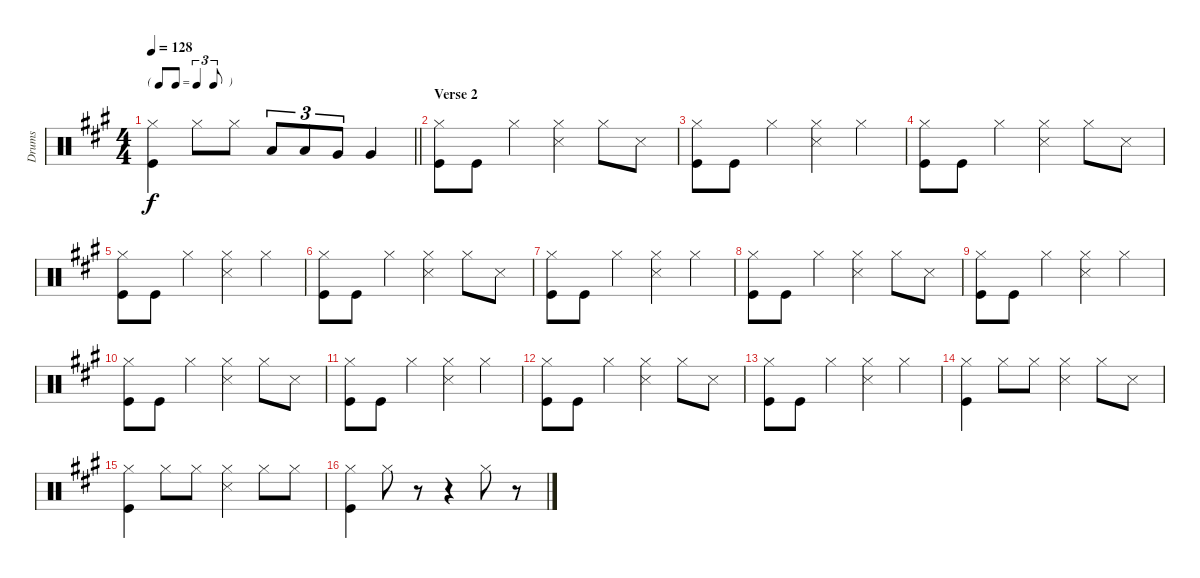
\track ("Drums" "Drums") {instrument percussion}
\staff {score}
\articulation defaults
\ts (4 4)
\tf triplet8th
\tempo 128
\clef neutral
\barLineRight lightlight
\ks a
("Hi-Hat (closed)" "Kick (hit)").4{dy f} "Hi-Hat (closed)".8 "Hi-Hat (closed)".8 "Low Tom (hit)".8{tu (3 2)} "Low Tom (hit)".8{tu (3 2)} "Very Low Tom (hit)".8{tu (3 2)} "Very Low Tom (hit)".4 |
\section ("" "Verse 2")
("Hi-Hat (closed)" "Kick (hit)").8 "Kick (hit)".8 "Hi-Hat (closed)".4 ("Hi-Hat (closed)" "Snare (side stick) 3").4 "Hi-Hat (closed)".8 "Snare (side stick) 3".8 |
("Hi-Hat (closed)" "Kick (hit)").8 "Kick (hit)".8 "Hi-Hat (closed)".4 ("Hi-Hat (closed)" "Snare (side stick) 3").4 "Hi-Hat (closed)".4 |
("Hi-Hat (closed)" "Kick (hit)").8 "Kick (hit)".8 "Hi-Hat (closed)".4 ("Hi-Hat (closed)" "Snare (side stick) 3").4 "Hi-Hat (closed)".8 "Snare (side stick) 3".8 |
("Hi-Hat (closed)" "Kick (hit)").8 "Kick (hit)".8 "Hi-Hat (closed)".4 ("Hi-Hat (closed)" "Snare (side stick) 3").4 "Hi-Hat (closed)".4 |
("Hi-Hat (closed)" "Kick (hit)").8 "Kick (hit)".8 "Hi-Hat (closed)".4 ("Hi-Hat (closed)" "Snare (side stick) 3").4 "Hi-Hat (closed)".8 "Snare (side stick) 3".8 |
("Hi-Hat (closed)" "Kick (hit)").8 "Kick (hit)".8 "Hi-Hat (closed)".4 ("Hi-Hat (closed)" "Snare (side stick) 3").4 "Hi-Hat (closed)".4 |
("Hi-Hat (closed)" "Kick (hit)").8 "Kick (hit)".8 "Hi-Hat (closed)".4 ("Hi-Hat (closed)" "Snare (side stick) 3").4 "Hi-Hat (closed)".8 "Snare (side stick) 3".8 |
("Hi-Hat (closed)" "Kick (hit)").8 "Kick (hit)".8 "Hi-Hat (closed)".4 ("Hi-Hat (closed)" "Snare (side stick) 3").4 "Hi-Hat (closed)".4 |
("Hi-Hat (closed)" "Kick (hit)").8 "Kick (hit)".8 "Hi-Hat (closed)".4 ("Hi-Hat (closed)" "Snare (side stick) 3").4 "Hi-Hat (closed)".8 "Snare (side stick) 3".8 |
("Hi-Hat (closed)" "Kick (hit)").8 "Kick (hit)".8 "Hi-Hat (closed)".4 ("Hi-Hat (closed)" "Snare (side stick) 3").4 "Hi-Hat (closed)".4 |
("Hi-Hat (closed)" "Kick (hit)").8 "Kick (hit)".8 "Hi-Hat (closed)".4 ("Hi-Hat (closed)" "Snare (side stick) 3").4 "Hi-Hat (closed)".8 "Snare (side stick) 3".8 |
("Hi-Hat (closed)" "Kick (hit)").8 "Kick (hit)".8 "Hi-Hat (closed)".4 ("Hi-Hat (closed)" "Snare (side stick) 3").4 "Hi-Hat (closed)".4 |
("Hi-Hat (closed)" "Kick (hit)").4 "Hi-Hat (closed)".8 "Hi-Hat (closed)".8 ("Hi-Hat (closed)" "Snare (side stick) 3").4 "Hi-Hat (closed)".8 "Snare (side stick) 3".8 |
("Hi-Hat (closed)" "Kick (hit)").4 "Hi-Hat (closed)".8 "Hi-Hat (closed)".8 ("Hi-Hat (closed)" "Snare (side stick) 3").4 "Hi-Hat (closed)".8 "Hi-Hat (closed)".8 |
("Hi-Hat (closed)" "Kick (hit)").4 "Hi-Hat (closed)".8 r.8 r.4 "Hi-Hat (closed)".8 r.8
